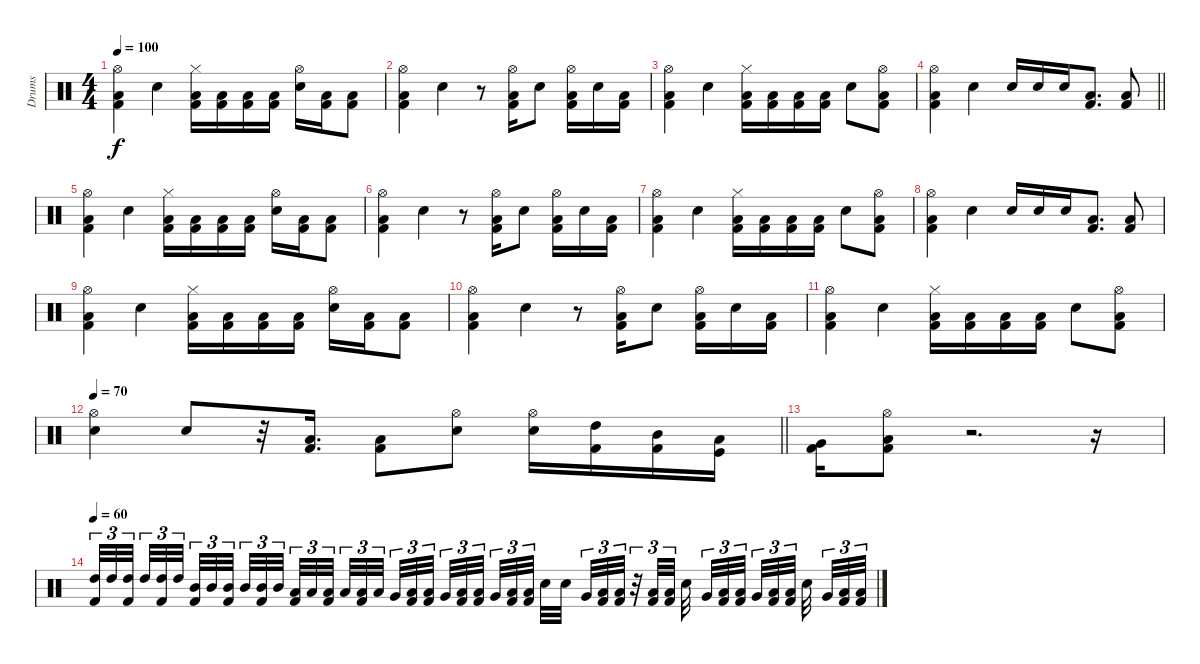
\track ("Drums" "Drums") {instrument percussion}
\staff {score}
\articulation defaults
\ts (4 4)
\tempo 100
\clef neutral
\ks c
("Hi-Hat (open)" "Low Floor Tom (hit)" "Kick (hit) 2").4{dy f} "Snare (hit) 2".4 ("Hi-Hat (closed)" "Low Floor Tom (hit)" "Kick (hit) 2").16 ("Low Floor Tom (hit)" "Kick (hit) 2").16 ("Low Floor Tom (hit)" "Kick (hit) 2").16 ("Low Floor Tom (hit)" "Kick (hit) 2").16 ("Hi-Hat (open)" "Snare (hit) 2").16 ("Low Floor Tom (hit)" "Kick (hit) 2").16 ("Low Floor Tom (hit)" "Kick (hit) 2").8 |
("Hi-Hat (open)" "Low Floor Tom (hit)" "Kick (hit) 2").4 "Snare (hit) 2".4 r.8 ("Hi-Hat (open)" "Low Floor Tom (hit)" "Kick (hit) 2").16 "Snare (hit) 2".8 ("Hi-Hat (open)" "Low Floor Tom (hit)" "Kick (hit) 2").16 "Snare (hit) 2".16 ("Low Floor Tom (hit)" "Kick (hit) 2").16 |
("Hi-Hat (open)" "Low Floor Tom (hit)" "Kick (hit) 2").4 "Snare (hit) 2".4 ("Hi-Hat (closed)" "Low Floor Tom (hit)" "Kick (hit) 2").16 ("Low Floor Tom (hit)" "Kick (hit) 2").16 ("Low Floor Tom (hit)" "Kick (hit) 2").16 ("Low Floor Tom (hit)" "Kick (hit) 2").16 "Snare (hit) 2".8 ("Hi-Hat (open)" "Low Floor Tom (hit)" "Kick (hit) 2").8 |
\barLineRight lightlight
("Hi-Hat (open)" "Low Floor Tom (hit)" "Kick (hit) 2").4 "Snare (hit) 2".4 "Snare (hit) 2".16 "Snare (hit) 2".16 "Snare (hit) 2".16 ("Low Floor Tom (hit)" "Kick (hit) 2").8{d} ("Low Tom (hit)" "Kick (hit) 2").8 |
("Hi-Hat (open)" "Low Floor Tom (hit)" "Kick (hit) 2").4 "Snare (hit) 2".4 ("Hi-Hat (closed)" "Low Floor Tom (hit)" "Kick (hit) 2").16 ("Low Floor Tom (hit)" "Kick (hit) 2").16 ("Low Floor Tom (hit)" "Kick (hit) 2").16 ("Low Floor Tom (hit)" "Kick (hit) 2").16 ("Hi-Hat (open)" "Snare (hit) 2").16 ("Low Floor Tom (hit)" "Kick (hit) 2").16 ("Low Floor Tom (hit)" "Kick (hit) 2").8 |
("Hi-Hat (open)" "Low Floor Tom (hit)" "Kick (hit) 2").4 "Snare (hit) 2".4 r.8 ("Hi-Hat (open)" "Low Floor Tom (hit)" "Kick (hit) 2").16 "Snare (hit) 2".8 ("Hi-Hat (open)" "Low Floor Tom (hit)" "Kick (hit) 2").16 "Snare (hit) 2".16 ("Low Floor Tom (hit)" "Kick (hit) 2").16 |
("Hi-Hat (open)" "Low Floor Tom (hit)" "Kick (hit) 2").4 "Snare (hit) 2".4 ("Hi-Hat (closed)" "Low Floor Tom (hit)" "Kick (hit) 2").16 ("Low Floor Tom (hit)" "Kick (hit) 2").16 ("Low Floor Tom (hit)" "Kick (hit) 2").16 ("Low Floor Tom (hit)" "Kick (hit) 2").16 "Snare (hit) 2".8 ("Hi-Hat (open)" "Low Floor Tom (hit)" "Kick (hit) 2").8 |
("Hi-Hat (open)" "Low Floor Tom (hit)" "Kick (hit) 2").4 "Snare (hit) 2".4 "Snare (hit) 2".16 "Snare (hit) 2".16 "Snare (hit) 2".16 ("Low Floor Tom (hit)" "Kick (hit) 2").8{d} ("Low Tom (hit)" "Kick (hit) 2").8 |
("Hi-Hat (open)" "Low Floor Tom (hit)" "Kick (hit) 2").4 "Snare (hit) 2".4 ("Hi-Hat (closed)" "Low Floor Tom (hit)" "Kick (hit) 2").16 ("Low Floor Tom (hit)" "Kick (hit) 2").16 ("Low Floor Tom (hit)" "Kick (hit) 2").16 ("Low Floor Tom (hit)" "Kick (hit) 2").16 ("Hi-Hat (open)" "Snare (hit) 2").16 ("Low Floor Tom (hit)" "Kick (hit) 2").16 ("Low Floor Tom (hit)" "Kick (hit) 2").8 |
("Hi-Hat (open)" "Low Floor Tom (hit)" "Kick (hit) 2").4 "Snare (hit) 2".4 r.8 ("Hi-Hat (open)" "Low Floor Tom (hit)" "Kick (hit) 2").16 "Snare (hit) 2".8 ("Hi-Hat (open)" "Low Floor Tom (hit)" "Kick (hit) 2").16 "Snare (hit) 2".16 ("Low Floor Tom (hit)" "Kick (hit) 2").16 |
("Hi-Hat (open)" "Low Floor Tom (hit)" "Kick (hit) 2").4 "Snare (hit) 2".4 ("Hi-Hat (closed)" "Low Floor Tom (hit)" "Kick (hit) 2").16 ("Low Floor Tom (hit)" "Kick (hit) 2").16 ("Low Floor Tom (hit)" "Kick (hit) 2").16 ("Low Floor Tom (hit)" "Kick (hit) 2").16 "Snare (hit) 2".8 ("Hi-Hat (open)" "Low Floor Tom (hit)" "Kick (hit) 2").8 |
\tempo 70
\barLineRight lightlight
("Hi-Hat (open)" "Snare (hit) 2").4 "Snare (hit) 2".8 r.32 ("Low Floor Tom (hit)" "Kick (hit) 2").16{d} ("Low Floor Tom (hit)" "Kick (hit) 2").8 ("Hi-Hat (open)" "Snare (hit) 2").8 ("Hi-Hat (open)" "Snare (hit) 2").16 ("High Tom (hit)" "Kick (hit) 2").16 ("Mid Tom (hit)" "Kick (hit) 2").16 ("Low Tom (hit)" "Kick (hit)").16 |
("Very Low Tom (hit)" "Kick (hit) 2").16 ("Hi-Hat (open)" "Low Floor Tom (hit)" "Kick (hit) 2").8 r.2{d} r.16 |
\tempo 60
("High Tom (hit)" "Kick (hit) 2").32{tu (3 2)} "High Tom (hit)".32{tu (3 2)} ("High Tom (hit)" "Kick (hit) 2").32{tu (3 2) beam splitsecondary} "High Tom (hit)".32{tu (3 2)} ("High Tom (hit)" "Kick (hit) 2").32{tu (3 2)} "High Tom (hit)".32{tu (3 2) beam splitsecondary} ("Mid Tom (hit)" "Kick (hit) 2").32{tu (3 2)} "Mid Tom (hit)".32{tu (3 2)} ("Mid Tom (hit)" "Kick (hit) 2").32{tu (3 2) beam splitsecondary} "Mid Tom (hit)".32{tu (3 2)} ("Mid Tom (hit)" "Kick (hit) 2").32{tu (3 2)} "Mid Tom (hit)".32{tu (3 2)} ("Low Tom (hit)" "Kick (hit) 2").32{tu (3 2)} "Low Tom (hit)".32{tu (3 2)} ("Low Tom (hit)" "Kick (hit) 2").32{tu (3 2) beam splitsecondary} "Low Tom (hit)".32{tu (3 2)} ("Low Tom (hit)" "Kick (hit) 2").32{tu (3 2)} "Low Tom (hit)".32{tu (3 2) beam splitsecondary} "Very Low Tom (hit)".32{tu (3 2)} ("Low Floor Tom (hit)" "Kick (hit) 2").32{tu (3 2)} ("Low Floor Tom (hit)" "Kick (hit) 2").32{tu (3 2) beam splitsecondary} "Very Low Tom (hit)".32{tu (3 2)} ("Low Floor Tom (hit)" "Kick (hit) 2").32{tu (3 2)} ("Low Floor Tom (hit)" "Kick (hit) 2").32{tu (3 2)} "Very Low Tom (hit)".32{tu (3 2)} ("Low Floor Tom (hit)" "Kick (hit) 2").32{tu (3 2)} ("Low Floor Tom (hit)" "Kick (hit) 2").32{tu (3 2) beam splitsecondary} "Snare (hit) 2".32 "Snare (hit) 2".32{beam splitsecondary} "Very Low Tom (hit)".32{tu (3 2)} ("Low Floor Tom (hit)" "Kick (hit) 2").32{tu (3 2)} ("Low Floor Tom (hit)" "Kick (hit) 2").32{tu (3 2)} r.32{tu (3 2)} ("Low Floor Tom (hit)" "Kick (hit) 2").32{tu (3 2)} ("Low Floor Tom (hit)" "Kick (hit) 2").32{tu (3 2)} "Snare (hit) 2".32{beam splitsecondary} "Very Low Tom (hit)".32{tu (3 2)} ("Low Floor Tom (hit)" "Kick (hit) 2").32{tu (3 2)} ("Low Floor Tom (hit)" "Kick (hit) 2").32{tu (3 2) beam splitsecondary} "Very Low Tom (hit)".32{tu (3 2)} ("Low Floor Tom (hit)" "Kick (hit) 2").32{tu (3 2)} ("Low Floor Tom (hit)" "Kick (hit) 2").32{tu (3 2) beam splitsecondary} "Snare (hit) 2".32{beam splitsecondary} "Very Low Tom (hit)".32{tu (3 2)} ("Low Floor Tom (hit)" "Kick (hit) 2").32{tu (3 2)} ("Low Floor Tom (hit)" "Kick (hit) 2").32{tu (3 2)}
